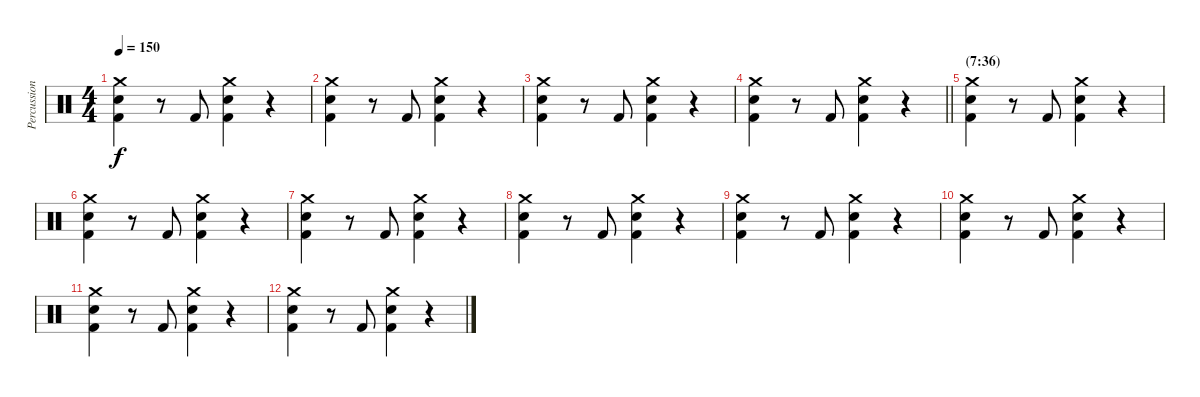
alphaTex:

\track ("Percussion" "Percussion") {instrument percussion}
\staff {score}
\articulation defaults
\ts (4 4)
\tempo 150
\clef neutral
\ks c
("Crash medium (hit)" "Electric Snare (hit)" "Kick (hit) 2").4{dy f} r.8 "Kick (hit) 2".8 ("Crash medium (hit)" "Electric Snare (hit)" "Kick (hit) 2").4 r.4 |
("Crash medium (hit)" "Electric Snare (hit)" "Kick (hit) 2").4 r.8 "Kick (hit) 2".8 ("Crash medium (hit)" "Electric Snare (hit)" "Kick (hit) 2").4 r.4 |
("Crash medium (hit)" "Electric Snare (hit)" "Kick (hit) 2").4 r.8 "Kick (hit) 2".8 ("Crash medium (hit)" "Electric Snare (hit)" "Kick (hit) 2").4 r.4 |
\barLineRight lightlight
("Crash medium (hit)" "Electric Snare (hit)" "Kick (hit) 2").4 r.8 "Kick (hit) 2".8 ("Crash medium (hit)" "Electric Snare (hit)" "Kick (hit) 2").4 r.4 |
\section ("" "(7:36)")
("Crash medium (hit)" "Electric Snare (hit)" "Kick (hit) 2").4{volume 5} r.8 "Kick (hit) 2".8 ("Crash medium (hit)" "Electric Snare (hit)" "Kick (hit) 2").4 r.4 |
("Crash medium (hit)" "Electric Snare (hit)" "Kick (hit) 2").4 r.8 "Kick (hit) 2".8 ("Crash medium (hit)" "Electric Snare (hit)" "Kick (hit) 2").4 r.4 |
("Crash medium (hit)" "Electric Snare (hit)" "Kick (hit) 2").4 r.8 "Kick (hit) 2".8 ("Crash medium (hit)" "Electric Snare (hit)" "Kick (hit) 2").4 r.4 |
("Crash medium (hit)" "Electric Snare (hit)" "Kick (hit) 2").4 r.8 "Kick (hit) 2".8 ("Crash medium (hit)" "Electric Snare (hit)" "Kick (hit) 2").4 r.4 |
("Crash medium (hit)" "Electric Snare (hit)" "Kick (hit) 2").4{volume 0} r.8 "Kick (hit) 2".8 ("Crash medium (hit)" "Electric Snare (hit)" "Kick (hit) 2").4 r.4 |
("Crash medium (hit)" "Electric Snare (hit)" "Kick (hit) 2").4 r.8 "Kick (hit) 2".8 ("Crash medium (hit)" "Electric Snare (hit)" "Kick (hit) 2").4 r.4 |
("Crash medium (hit)" "Electric Snare (hit)" "Kick (hit) 2").4 r.8 "Kick (hit) 2".8 ("Crash medium (hit)" "Electric Snare (hit)" "Kick (hit) 2").4 r.4 |
("Crash medium (hit)" "Electric Snare (hit)" "Kick (hit) 2").4 r.8 "Kick (hit) 2".8 ("Crash medium (hit)" "Electric Snare (hit)" "Kick (hit) 2").4 r.4
